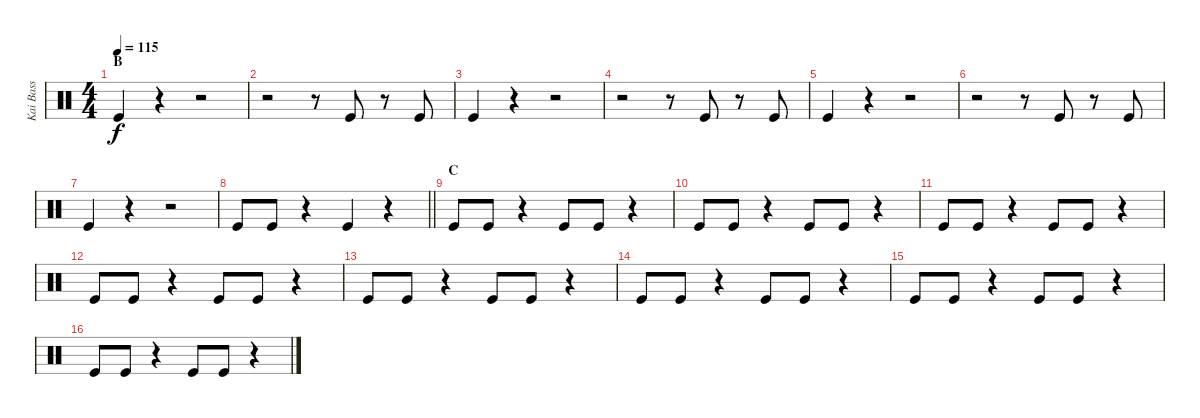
\track ("Kai Bass" "Kai Bass") {instrument percussion}
\staff {score}
\articulation defaults
\ts (4 4)
\section ("" "B")
\tempo 115
\clef neutral
\ks c "Kick (hit)".4{dy f}
r.4 r.2 |
r.2 r.8 "Kick (hit)".8 r.8 "Kick (hit)".8 |
"Kick (hit)".4 r.4 r.2 |
r.2 r.8 "Kick (hit)".8 r.8 "Kick (hit)".8 |
"Kick (hit)".4 r.4 r.2 |
r.2 r.8 "Kick (hit)".8 r.8 "Kick (hit)".8 |
"Kick (hit)".4 r.4 r.2 |
\barLineRight lightlight "Kick (hit)".8 "Kick (hit)".8
r.4 "Kick (hit)".4 r.4 |
\section ("" "C")
"Kick (hit)".8 "Kick (hit)".8 r.4 "Kick (hit)".8 "Kick (hit)".8 r.4 |
"Kick (hit)".8 "Kick (hit)".8 r.4 "Kick (hit)".8 "Kick (hit)".8 r.4 |
"Kick (hit)".8 "Kick (hit)".8 r.4 "Kick (hit)".8 "Kick (hit)".8 r.4 |
"Kick (hit)".8 "Kick (hit)".8 r.4 "Kick (hit)".8 "Kick (hit)".8 r.4 |
"Kick (hit)".8 "Kick (hit)".8 r.4 "Kick (hit)".8 "Kick (hit)".8 r.4 |
"Kick (hit)".8 "Kick (hit)".8 r.4 "Kick (hit)".8 "Kick (hit)".8 r.4 |
"Kick (hit)".8 "Kick (hit)".8 r.4 "Kick (hit)".8 "Kick (hit)".8 r.4 |
"Kick (hit)".8 "Kick (hit)".8 r.4 "Kick (hit)".8 "Kick (hit)".8 r.4
